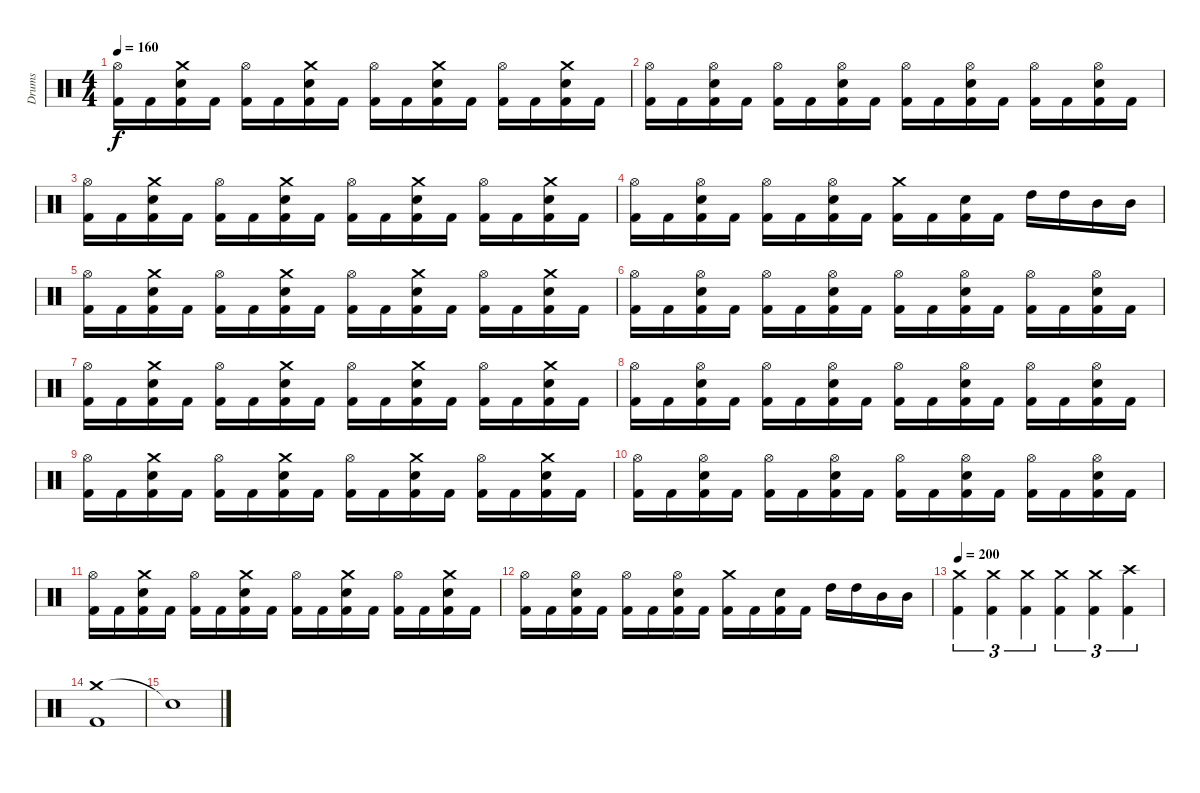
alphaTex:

\track ("Drums" "Drums") {instrument percussion}
\staff {score}
\articulation defaults
\ts (4 4)
\tempo 160
\clef neutral
\ks c
("Hi-Hat (open)" "Kick (hit) 2").16{dy f} "Kick (hit) 2".16 ("Crash medium (hit)" "Electric Snare (hit)" "Kick (hit) 2").16 "Kick (hit) 2".16 ("Hi-Hat (open)" "Kick (hit) 2").16 "Kick (hit) 2".16 ("Crash medium (hit)" "Electric Snare (hit)" "Kick (hit) 2").16 "Kick (hit) 2".16 ("Hi-Hat (open)" "Kick (hit) 2").16 "Kick (hit) 2".16 ("Crash medium (hit)" "Electric Snare (hit)" "Kick (hit) 2").16 "Kick (hit) 2".16 ("Hi-Hat (open)" "Kick (hit) 2").16 "Kick (hit) 2".16 ("Crash medium (hit)" "Electric Snare (hit)" "Kick (hit) 2").16 "Kick (hit) 2".16 |
("Hi-Hat (open)" "Kick (hit) 2").16 "Kick (hit) 2".16 ("Hi-Hat (open)" "Electric Snare (hit)" "Kick (hit) 2").16 "Kick (hit) 2".16 ("Hi-Hat (open)" "Kick (hit) 2").16 "Kick (hit) 2".16 ("Hi-Hat (open)" "Electric Snare (hit)" "Kick (hit) 2").16 "Kick (hit) 2".16 ("Hi-Hat (open)" "Kick (hit) 2").16 "Kick (hit) 2".16 ("Hi-Hat (open)" "Electric Snare (hit)" "Kick (hit) 2").16 "Kick (hit) 2".16 ("Hi-Hat (open)" "Kick (hit) 2").16 "Kick (hit) 2".16 ("Hi-Hat (open)" "Electric Snare (hit)" "Kick (hit) 2").16 "Kick (hit) 2".16 |
("Hi-Hat (open)" "Kick (hit) 2").16 "Kick (hit) 2".16 ("Crash medium (hit)" "Electric Snare (hit)" "Kick (hit) 2").16 "Kick (hit) 2".16 ("Hi-Hat (open)" "Kick (hit) 2").16 "Kick (hit) 2".16 ("Crash medium (hit)" "Electric Snare (hit)" "Kick (hit) 2").16 "Kick (hit) 2".16 ("Hi-Hat (open)" "Kick (hit) 2").16 "Kick (hit) 2".16 ("Crash medium (hit)" "Electric Snare (hit)" "Kick (hit) 2").16 "Kick (hit) 2".16 ("Hi-Hat (open)" "Kick (hit) 2").16 "Kick (hit) 2".16 ("Crash medium (hit)" "Electric Snare (hit)" "Kick (hit) 2").16 "Kick (hit) 2".16 |
("Hi-Hat (open)" "Kick (hit) 2").16 "Kick (hit) 2".16 ("Hi-Hat (open)" "Electric Snare (hit)" "Kick (hit) 2").16 "Kick (hit) 2".16 ("Hi-Hat (open)" "Kick (hit) 2").16 "Kick (hit) 2".16 ("Hi-Hat (open)" "Electric Snare (hit)" "Kick (hit) 2").16 "Kick (hit) 2".16 ("Crash medium (hit)" "Kick (hit) 2").16 "Kick (hit) 2".16 ("Electric Snare (hit)" "Kick (hit) 2").16 "Kick (hit) 2".16 "High Tom (hit)".16 "High Tom (hit)".16 "Mid Tom (hit)".16 "Mid Tom (hit)".16 |
("Hi-Hat (open)" "Kick (hit) 2").16 "Kick (hit) 2".16 ("Crash medium (hit)" "Electric Snare (hit)" "Kick (hit) 2").16 "Kick (hit) 2".16 ("Hi-Hat (open)" "Kick (hit) 2").16 "Kick (hit) 2".16 ("Crash medium (hit)" "Electric Snare (hit)" "Kick (hit) 2").16 "Kick (hit) 2".16 ("Hi-Hat (open)" "Kick (hit) 2").16 "Kick (hit) 2".16 ("Crash medium (hit)" "Electric Snare (hit)" "Kick (hit) 2").16 "Kick (hit) 2".16 ("Hi-Hat (open)" "Kick (hit) 2").16 "Kick (hit) 2".16 ("Crash medium (hit)" "Electric Snare (hit)" "Kick (hit) 2").16 "Kick (hit) 2".16 |
("Hi-Hat (open)" "Kick (hit) 2").16 "Kick (hit) 2".16 ("Hi-Hat (open)" "Electric Snare (hit)" "Kick (hit) 2").16 "Kick (hit) 2".16 ("Hi-Hat (open)" "Kick (hit) 2").16 "Kick (hit) 2".16 ("Hi-Hat (open)" "Electric Snare (hit)" "Kick (hit) 2").16 "Kick (hit) 2".16 ("Hi-Hat (open)" "Kick (hit) 2").16 "Kick (hit) 2".16 ("Hi-Hat (open)" "Electric Snare (hit)" "Kick (hit) 2").16 "Kick (hit) 2".16 ("Hi-Hat (open)" "Kick (hit) 2").16 "Kick (hit) 2".16 ("Hi-Hat (open)" "Electric Snare (hit)" "Kick (hit) 2").16 "Kick (hit) 2".16 |
("Hi-Hat (open)" "Kick (hit) 2").16 "Kick (hit) 2".16 ("Crash medium (hit)" "Electric Snare (hit)" "Kick (hit) 2").16 "Kick (hit) 2".16 ("Hi-Hat (open)" "Kick (hit) 2").16 "Kick (hit) 2".16 ("Crash medium (hit)" "Electric Snare (hit)" "Kick (hit) 2").16 "Kick (hit) 2".16 ("Hi-Hat (open)" "Kick (hit) 2").16 "Kick (hit) 2".16 ("Crash medium (hit)" "Electric Snare (hit)" "Kick (hit) 2").16 "Kick (hit) 2".16 ("Hi-Hat (open)" "Kick (hit) 2").16 "Kick (hit) 2".16 ("Crash medium (hit)" "Electric Snare (hit)" "Kick (hit) 2").16 "Kick (hit) 2".16 |
("Hi-Hat (open)" "Kick (hit) 2").16 "Kick (hit) 2".16 ("Hi-Hat (open)" "Electric Snare (hit)" "Kick (hit) 2").16 "Kick (hit) 2".16 ("Hi-Hat (open)" "Kick (hit) 2").16 "Kick (hit) 2".16 ("Hi-Hat (open)" "Electric Snare (hit)" "Kick (hit) 2").16 "Kick (hit) 2".16 ("Hi-Hat (open)" "Kick (hit) 2").16 "Kick (hit) 2".16 ("Hi-Hat (open)" "Electric Snare (hit)" "Kick (hit) 2").16 "Kick (hit) 2".16 ("Hi-Hat (open)" "Kick (hit) 2").16 "Kick (hit) 2".16 ("Hi-Hat (open)" "Electric Snare (hit)" "Kick (hit) 2").16 "Kick (hit) 2".16 |
("Hi-Hat (open)" "Kick (hit) 2").16 "Kick (hit) 2".16 ("Crash medium (hit)" "Electric Snare (hit)" "Kick (hit) 2").16 "Kick (hit) 2".16 ("Hi-Hat (open)" "Kick (hit) 2").16 "Kick (hit) 2".16 ("Crash medium (hit)" "Electric Snare (hit)" "Kick (hit) 2").16 "Kick (hit) 2".16 ("Hi-Hat (open)" "Kick (hit) 2").16 "Kick (hit) 2".16 ("Crash medium (hit)" "Electric Snare (hit)" "Kick (hit) 2").16 "Kick (hit) 2".16 ("Hi-Hat (open)" "Kick (hit) 2").16 "Kick (hit) 2".16 ("Crash medium (hit)" "Electric Snare (hit)" "Kick (hit) 2").16 "Kick (hit) 2".16 |
("Hi-Hat (open)" "Kick (hit) 2").16 "Kick (hit) 2".16 ("Hi-Hat (open)" "Electric Snare (hit)" "Kick (hit) 2").16 "Kick (hit) 2".16 ("Hi-Hat (open)" "Kick (hit) 2").16 "Kick (hit) 2".16 ("Hi-Hat (open)" "Electric Snare (hit)" "Kick (hit) 2").16 "Kick (hit) 2".16 ("Hi-Hat (open)" "Kick (hit) 2").16 "Kick (hit) 2".16 ("Hi-Hat (open)" "Electric Snare (hit)" "Kick (hit) 2").16 "Kick (hit) 2".16 ("Hi-Hat (open)" "Kick (hit) 2").16 "Kick (hit) 2".16 ("Hi-Hat (open)" "Electric Snare (hit)" "Kick (hit) 2").16 "Kick (hit) 2".16 |
("Hi-Hat (open)" "Kick (hit) 2").16 "Kick (hit) 2".16 ("Crash medium (hit)" "Electric Snare (hit)" "Kick (hit) 2").16 "Kick (hit) 2".16 ("Hi-Hat (open)" "Kick (hit) 2").16 "Kick (hit) 2".16 ("Crash medium (hit)" "Electric Snare (hit)" "Kick (hit) 2").16 "Kick (hit) 2".16 ("Hi-Hat (open)" "Kick (hit) 2").16 "Kick (hit) 2".16 ("Crash medium (hit)" "Electric Snare (hit)" "Kick (hit) 2").16 "Kick (hit) 2".16 ("Hi-Hat (open)" "Kick (hit) 2").16 "Kick (hit) 2".16 ("Crash medium (hit)" "Electric Snare (hit)" "Kick (hit) 2").16 "Kick (hit) 2".16 |
("Hi-Hat (open)" "Kick (hit) 2").16 "Kick (hit) 2".16 ("Hi-Hat (open)" "Electric Snare (hit)" "Kick (hit) 2").16 "Kick (hit) 2".16 ("Hi-Hat (open)" "Kick (hit) 2").16 "Kick (hit) 2".16 ("Hi-Hat (open)" "Electric Snare (hit)" "Kick (hit) 2").16 "Kick (hit) 2".16 ("Crash medium (hit)" "Kick (hit) 2").16 "Kick (hit) 2".16 ("Electric Snare (hit)" "Kick (hit) 2").16 "Kick (hit) 2".16 "High Tom (hit)".16 "High Tom (hit)".16 "Mid Tom (hit)".16 "Mid Tom (hit)".16 |
\tempo 200
("Crash medium (hit)" "Kick (hit) 2").4{tu (3 2)} ("Crash medium (hit)" "Kick (hit) 2").4{tu (3 2)} ("Crash medium (hit)" "Kick (hit) 2").4{tu (3 2)} ("Crash medium (hit)" "Kick (hit) 2").4{tu (3 2)} ("Crash medium (hit)" "Kick (hit) 2").4{tu (3 2)} ("Crash high (hit)" "Kick (hit) 2").4{tu (3 2)} |
("Crash medium (hit)" "Kick (hit) 2").1 |
"Snare (hit)"{t}.1
